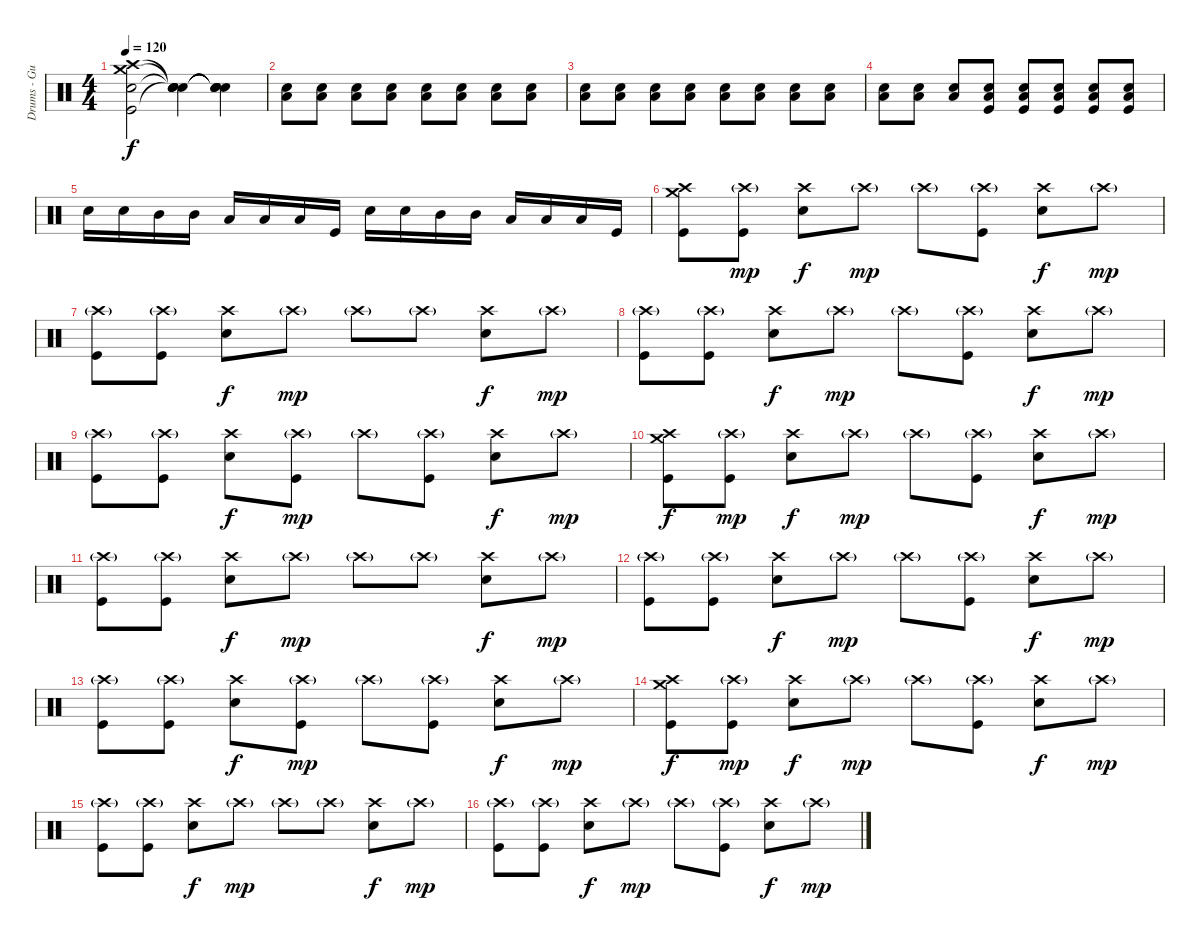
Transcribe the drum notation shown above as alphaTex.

\track ("Drums - Gustav" "Drums - Gu") {instrument percussion}
\staff {score}
\articulation defaults
\ts (4 4)
\tempo 120
\clef neutral
\ks c
("Kick (hit)" "Snare (hit) 2" "Crash high (hit)" "Crash medium (hit)").2{dy f} ("Snare (hit)"{t} "Snare (hit)"{t} "Snare (hit)"{t} "Snare (hit)"{t}).4{volume 3} ("Snare (hit)"{t} "Snare (hit)"{t} "Snare (hit)"{t} "Snare (hit)"{t}).4 |
("Snare (hit) 2" "Low Floor Tom (hit)").8{volume 11} ("Snare (hit) 2" "Low Floor Tom (hit)").8 ("Snare (hit) 2" "Low Floor Tom (hit)").8 ("Snare (hit) 2" "Low Floor Tom (hit)").8 ("Snare (hit) 2" "Low Floor Tom (hit)").8 ("Snare (hit) 2" "Low Floor Tom (hit)").8 ("Snare (hit) 2" "Low Floor Tom (hit)").8 ("Snare (hit) 2" "Low Floor Tom (hit)").8 |
("Snare (hit) 2" "Low Floor Tom (hit)").8 ("Snare (hit) 2" "Low Floor Tom (hit)").8 ("Snare (hit) 2" "Low Floor Tom (hit)").8 ("Snare (hit) 2" "Low Floor Tom (hit)").8 ("Snare (hit) 2" "Low Floor Tom (hit)").8 ("Snare (hit) 2" "Low Floor Tom (hit)").8 ("Snare (hit) 2" "Low Floor Tom (hit)").8 ("Snare (hit) 2" "Low Floor Tom (hit)").8 |
("Snare (hit) 2" "Low Floor Tom (hit)").8 ("Snare (hit) 2" "Low Floor Tom (hit)").8 ("Snare (hit) 2" "Low Floor Tom (hit)").8 ("Kick (hit)" "Snare (hit) 2" "Low Floor Tom (hit)").8 ("Kick (hit)" "Snare (hit) 2" "Low Floor Tom (hit)").8 ("Kick (hit)" "Snare (hit) 2" "Low Floor Tom (hit)").8 ("Kick (hit)" "Snare (hit) 2" "Low Floor Tom (hit)").8 ("Kick (hit)" "Snare (hit) 2" "Low Floor Tom (hit)").8 |
"Snare (hit) 2".16 "Snare (hit) 2".16 "Mid Tom (hit)".16 "Mid Tom (hit)".16 "Low Tom (hit)".16 "Low Tom (hit)".16 "Low Floor Tom (hit)".16 "Kick (hit)".16 "Snare (hit) 2".16 "Snare (hit) 2".16 "Mid Tom (hit)".16 "Mid Tom (hit)".16 "Low Tom (hit)".16 "Low Tom (hit)".16 "Low Floor Tom (hit)".16 "Kick (hit)".16 |
("Kick (hit)" "Crash high (hit)" "Crash medium (hit)").8 ("Kick (hit)" "Crash high (hit)"{g}).8{dy mp} ("Snare (hit) 2" "Crash high (hit)").8{dy f} "Crash high (hit)"{g}.8{dy mp} "Crash high (hit)"{g}.8 ("Kick (hit)" "Crash high (hit)"{g}).8 ("Snare (hit) 2" "Crash high (hit)").8{dy f} "Crash high (hit)"{g}.8{dy mp} |
("Kick (hit)" "Crash high (hit)"{g}).8 ("Kick (hit)" "Crash high (hit)"{g}).8 ("Snare (hit) 2" "Crash high (hit)").8{dy f} "Crash high (hit)"{g}.8{dy mp} "Crash high (hit)"{g}.8 "Crash high (hit)"{g}.8 ("Snare (hit) 2" "Crash high (hit)").8{dy f} "Crash high (hit)"{g}.8{dy mp} |
("Kick (hit)" "Crash high (hit)"{g}).8 ("Kick (hit)" "Crash high (hit)"{g}).8 ("Snare (hit) 2" "Crash high (hit)").8{dy f} "Crash high (hit)"{g}.8{dy mp} "Crash high (hit)"{g}.8 ("Kick (hit)" "Crash high (hit)"{g}).8 ("Snare (hit) 2" "Crash high (hit)").8{dy f} "Crash high (hit)"{g}.8{dy mp} |
("Kick (hit)" "Crash high (hit)"{g}).8 ("Kick (hit)" "Crash high (hit)"{g}).8 ("Snare (hit) 2" "Crash high (hit)").8{dy f} ("Kick (hit)" "Crash high (hit)"{g}).8{dy mp} "Crash high (hit)"{g}.8 ("Kick (hit)" "Crash high (hit)"{g}).8 ("Snare (hit) 2" "Crash high (hit)").8{dy f} "Crash high (hit)"{g}.8{dy mp} |
("Kick (hit)" "Crash high (hit)" "Crash medium (hit)").8{dy f} ("Kick (hit)" "Crash high (hit)"{g}).8{dy mp} ("Snare (hit) 2" "Crash high (hit)").8{dy f} "Crash high (hit)"{g}.8{dy mp} "Crash high (hit)"{g}.8 ("Kick (hit)" "Crash high (hit)"{g}).8 ("Snare (hit) 2" "Crash high (hit)").8{dy f} "Crash high (hit)"{g}.8{dy mp} |
("Kick (hit)" "Crash high (hit)"{g}).8 ("Kick (hit)" "Crash high (hit)"{g}).8 ("Snare (hit) 2" "Crash high (hit)").8{dy f} "Crash high (hit)"{g}.8{dy mp} "Crash high (hit)"{g}.8 "Crash high (hit)"{g}.8 ("Snare (hit) 2" "Crash high (hit)").8{dy f} "Crash high (hit)"{g}.8{dy mp} |
("Kick (hit)" "Crash high (hit)"{g}).8 ("Kick (hit)" "Crash high (hit)"{g}).8 ("Snare (hit) 2" "Crash high (hit)").8{dy f} "Crash high (hit)"{g}.8{dy mp} "Crash high (hit)"{g}.8 ("Kick (hit)" "Crash high (hit)"{g}).8 ("Snare (hit) 2" "Crash high (hit)").8{dy f} "Crash high (hit)"{g}.8{dy mp} |
("Kick (hit)" "Crash high (hit)"{g}).8 ("Kick (hit)" "Crash high (hit)"{g}).8 ("Snare (hit) 2" "Crash high (hit)").8{dy f} ("Kick (hit)" "Crash high (hit)"{g}).8{dy mp} "Crash high (hit)"{g}.8 ("Kick (hit)" "Crash high (hit)"{g}).8 ("Snare (hit) 2" "Crash high (hit)").8{dy f} "Crash high (hit)"{g}.8{dy mp} |
("Kick (hit)" "Crash high (hit)" "Crash medium (hit)").8{dy f} ("Kick (hit)" "Crash high (hit)"{g}).8{dy mp} ("Snare (hit) 2" "Crash high (hit)").8{dy f} "Crash high (hit)"{g}.8{dy mp} "Crash high (hit)"{g}.8 ("Kick (hit)" "Crash high (hit)"{g}).8 ("Snare (hit) 2" "Crash high (hit)").8{dy f} "Crash high (hit)"{g}.8{dy mp} |
("Kick (hit)" "Crash high (hit)"{g}).8 ("Kick (hit)" "Crash high (hit)"{g}).8 ("Snare (hit) 2" "Crash high (hit)").8{dy f} "Crash high (hit)"{g}.8{dy mp} "Crash high (hit)"{g}.8 "Crash high (hit)"{g}.8 ("Snare (hit) 2" "Crash high (hit)").8{dy f} "Crash high (hit)"{g}.8{dy mp} |
("Kick (hit)" "Crash high (hit)"{g}).8 ("Kick (hit)" "Crash high (hit)"{g}).8 ("Snare (hit) 2" "Crash high (hit)").8{dy f} "Crash high (hit)"{g}.8{dy mp} "Crash high (hit)"{g}.8 ("Kick (hit)" "Crash high (hit)"{g}).8 ("Snare (hit) 2" "Crash high (hit)").8{dy f} "Crash high (hit)"{g}.8{dy mp}
